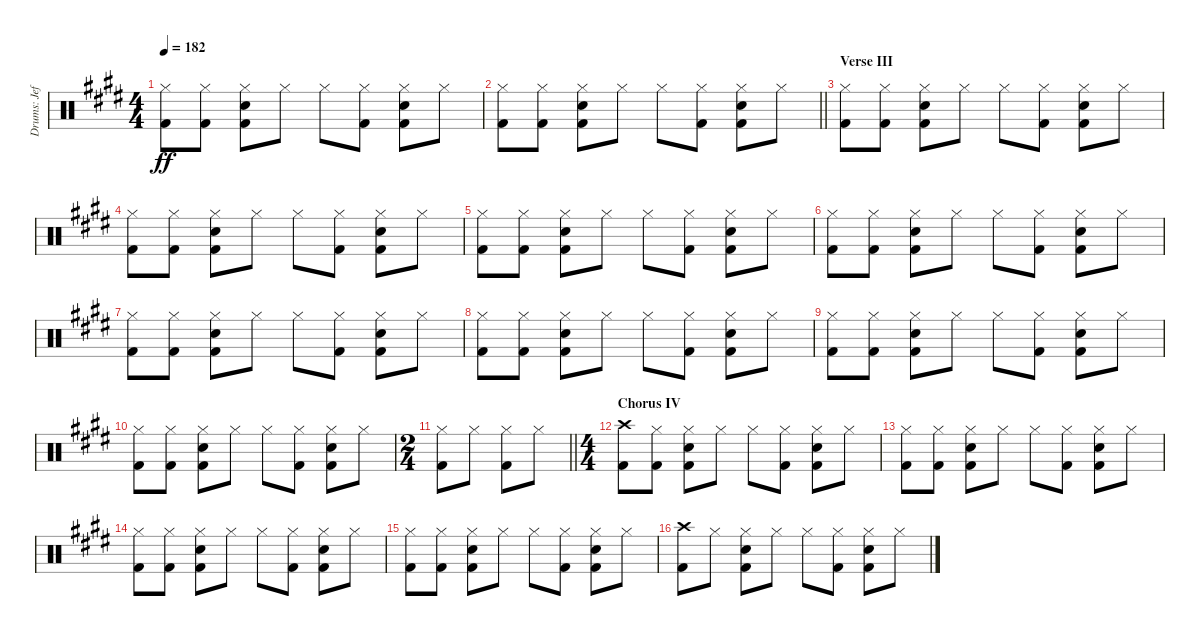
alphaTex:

\track ("Drums: Jeff" "Drums: Jef") {instrument percussion}
\staff {score}
\articulation defaults
\ts (4 4)
\tempo 182
\clef neutral
\ks e
("Hi-Hat (closed)" "Kick (hit) 2").8{dy ff} ("Hi-Hat (closed)" "Kick (hit) 2").8 ("Hi-Hat (closed)" "Electric Snare (hit)" "Kick (hit) 2").8 "Hi-Hat (closed)".8 "Hi-Hat (closed)".8 ("Hi-Hat (closed)" "Kick (hit) 2").8 ("Hi-Hat (closed)" "Electric Snare (hit)" "Kick (hit) 2").8 "Hi-Hat (closed)".8 |
\barLineRight lightlight
("Hi-Hat (closed)" "Kick (hit) 2").8 ("Hi-Hat (closed)" "Kick (hit) 2").8 ("Hi-Hat (closed)" "Electric Snare (hit)" "Kick (hit) 2").8 "Hi-Hat (closed)".8 "Hi-Hat (closed)".8 ("Hi-Hat (closed)" "Kick (hit) 2").8 ("Hi-Hat (closed)" "Electric Snare (hit)" "Kick (hit) 2").8 "Hi-Hat (closed)".8 |
\section ("" "Verse III")
("Hi-Hat (closed)" "Kick (hit) 2").8 ("Hi-Hat (closed)" "Kick (hit) 2").8 ("Hi-Hat (closed)" "Electric Snare (hit)" "Kick (hit) 2").8 "Hi-Hat (closed)".8 "Hi-Hat (closed)".8 ("Hi-Hat (closed)" "Kick (hit) 2").8 ("Hi-Hat (closed)" "Electric Snare (hit)" "Kick (hit) 2").8 "Hi-Hat (closed)".8 |
("Hi-Hat (closed)" "Kick (hit) 2").8 ("Hi-Hat (closed)" "Kick (hit) 2").8 ("Hi-Hat (closed)" "Electric Snare (hit)" "Kick (hit) 2").8 "Hi-Hat (closed)".8 "Hi-Hat (closed)".8 ("Hi-Hat (closed)" "Kick (hit) 2").8 ("Hi-Hat (closed)" "Electric Snare (hit)" "Kick (hit) 2").8 "Hi-Hat (closed)".8 |
("Hi-Hat (closed)" "Kick (hit) 2").8 ("Hi-Hat (closed)" "Kick (hit) 2").8 ("Hi-Hat (closed)" "Electric Snare (hit)" "Kick (hit) 2").8 "Hi-Hat (closed)".8 "Hi-Hat (closed)".8 ("Hi-Hat (closed)" "Kick (hit) 2").8 ("Hi-Hat (closed)" "Electric Snare (hit)" "Kick (hit) 2").8 "Hi-Hat (closed)".8 |
("Hi-Hat (closed)" "Kick (hit) 2").8 ("Hi-Hat (closed)" "Kick (hit) 2").8 ("Hi-Hat (closed)" "Electric Snare (hit)" "Kick (hit) 2").8 "Hi-Hat (closed)".8 "Hi-Hat (closed)".8 ("Hi-Hat (closed)" "Kick (hit) 2").8 ("Hi-Hat (closed)" "Electric Snare (hit)" "Kick (hit) 2").8 "Hi-Hat (closed)".8 |
("Hi-Hat (closed)" "Kick (hit) 2").8 ("Hi-Hat (closed)" "Kick (hit) 2").8 ("Hi-Hat (closed)" "Electric Snare (hit)" "Kick (hit) 2").8 "Hi-Hat (closed)".8 "Hi-Hat (closed)".8 ("Hi-Hat (closed)" "Kick (hit) 2").8 ("Hi-Hat (closed)" "Electric Snare (hit)" "Kick (hit) 2").8 "Hi-Hat (closed)".8 |
("Hi-Hat (closed)" "Kick (hit) 2").8 ("Hi-Hat (closed)" "Kick (hit) 2").8 ("Hi-Hat (closed)" "Electric Snare (hit)" "Kick (hit) 2").8 "Hi-Hat (closed)".8 "Hi-Hat (closed)".8 ("Hi-Hat (closed)" "Kick (hit) 2").8 ("Hi-Hat (closed)" "Electric Snare (hit)" "Kick (hit) 2").8 "Hi-Hat (closed)".8 |
("Hi-Hat (closed)" "Kick (hit) 2").8 ("Hi-Hat (closed)" "Kick (hit) 2").8 ("Hi-Hat (closed)" "Electric Snare (hit)" "Kick (hit) 2").8 "Hi-Hat (closed)".8 "Hi-Hat (closed)".8 ("Hi-Hat (closed)" "Kick (hit) 2").8 ("Hi-Hat (closed)" "Electric Snare (hit)" "Kick (hit) 2").8 "Hi-Hat (closed)".8 |
("Hi-Hat (closed)" "Kick (hit) 2").8 ("Hi-Hat (closed)" "Kick (hit) 2").8 ("Hi-Hat (closed)" "Electric Snare (hit)" "Kick (hit) 2").8 "Hi-Hat (closed)".8 "Hi-Hat (closed)".8 ("Hi-Hat (closed)" "Kick (hit) 2").8 ("Hi-Hat (closed)" "Electric Snare (hit)" "Kick (hit) 2").8 "Hi-Hat (closed)".8 |
\ts (2 4)
\barLineRight lightlight
("Hi-Hat (closed)" "Kick (hit) 2").8 "Hi-Hat (closed)".8 ("Hi-Hat (closed)" "Kick (hit) 2").8 "Hi-Hat (closed)".8 |
\ts (4 4)
\section ("" "Chorus IV")
("Crash high (hit)" "Kick (hit) 2").8 ("Hi-Hat (closed)" "Kick (hit) 2").8 ("Hi-Hat (closed)" "Electric Snare (hit)" "Kick (hit) 2").8 "Hi-Hat (closed)".8 "Hi-Hat (closed)".8 ("Hi-Hat (closed)" "Kick (hit) 2").8 ("Hi-Hat (closed)" "Electric Snare (hit)" "Kick (hit) 2").8 "Hi-Hat (closed)".8 |
("Hi-Hat (closed)" "Kick (hit) 2").8 ("Hi-Hat (closed)" "Kick (hit) 2").8 ("Hi-Hat (closed)" "Electric Snare (hit)" "Kick (hit) 2").8 "Hi-Hat (closed)".8 "Hi-Hat (closed)".8 ("Hi-Hat (closed)" "Kick (hit) 2").8 ("Hi-Hat (closed)" "Electric Snare (hit)" "Kick (hit) 2").8 "Hi-Hat (closed)".8 |
("Hi-Hat (closed)" "Kick (hit) 2").8 ("Hi-Hat (closed)" "Kick (hit) 2").8 ("Hi-Hat (closed)" "Electric Snare (hit)" "Kick (hit) 2").8 "Hi-Hat (closed)".8 "Hi-Hat (closed)".8 ("Hi-Hat (closed)" "Kick (hit) 2").8 ("Hi-Hat (closed)" "Electric Snare (hit)" "Kick (hit) 2").8 "Hi-Hat (closed)".8 |
("Hi-Hat (closed)" "Kick (hit) 2").8 ("Hi-Hat (closed)" "Kick (hit) 2").8 ("Hi-Hat (closed)" "Electric Snare (hit)" "Kick (hit) 2").8 "Hi-Hat (closed)".8 "Hi-Hat (closed)".8 ("Hi-Hat (closed)" "Kick (hit) 2").8 ("Hi-Hat (closed)" "Electric Snare (hit)" "Kick (hit) 2").8 "Hi-Hat (closed)".8 |
("Crash high (hit)" "Kick (hit) 2").8 "Hi-Hat (closed)".8 ("Hi-Hat (closed)" "Electric Snare (hit)" "Kick (hit) 2").8 "Hi-Hat (closed)".8 "Hi-Hat (closed)".8 ("Hi-Hat (closed)" "Kick (hit) 2").8 ("Hi-Hat (closed)" "Electric Snare (hit)" "Kick (hit) 2").8 "Hi-Hat (closed)".8
